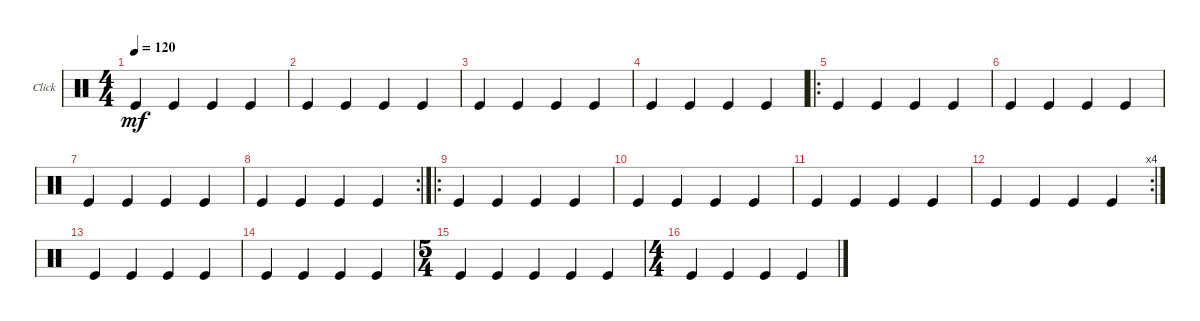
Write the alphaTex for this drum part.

\bracketExtendMode groupsimilarinstruments
\firstSystemTrackNameOrientation horizontal
\otherSystemsTrackNameOrientation horizontal
\track ("Click" "Click") {instrument percussion}
\staff {score}
\articulation defaults
\ts (4 4)
\tempo 120
\clef neutral
\ks c "Kick (hit)".4{dy mf} "Kick (hit)".4 "Kick (hit)".4 "Kick (hit)".4
|
"Kick (hit)".4 "Kick (hit)".4 "Kick (hit)".4 "Kick (hit)".4 |
"Kick (hit)".4 "Kick (hit)".4 "Kick (hit)".4 "Kick (hit)".4 |
"Kick (hit)".4 "Kick (hit)".4 "Kick (hit)".4 "Kick (hit)".4 |
\ro "Kick (hit)".4 "Kick (hit)".4 "Kick (hit)".4 "Kick (hit)".4
|
"Kick (hit)".4 "Kick (hit)".4 "Kick (hit)".4 "Kick (hit)".4 |
"Kick (hit)".4 "Kick (hit)".4 "Kick (hit)".4 "Kick (hit)".4 |
\rc 2 "Kick (hit)".4 "Kick (hit)".4 "Kick (hit)".4 "Kick (hit)".4
|
\ro "Kick (hit)".4 "Kick (hit)".4 "Kick (hit)".4 "Kick (hit)".4
|
"Kick (hit)".4 "Kick (hit)".4 "Kick (hit)".4 "Kick (hit)".4 |
"Kick (hit)".4 "Kick (hit)".4 "Kick (hit)".4 "Kick (hit)".4 |
\rc 4 "Kick (hit)".4 "Kick (hit)".4 "Kick (hit)".4 "Kick (hit)".4
|
"Kick (hit)".4 "Kick (hit)".4 "Kick (hit)".4 "Kick (hit)".4 |
"Kick (hit)".4 "Kick (hit)".4 "Kick (hit)".4 "Kick (hit)".4 |
\ts (5 4)
"Kick (hit)".4 "Kick (hit)".4 "Kick (hit)".4 "Kick (hit)".4 "Kick (hit)".4 |
\ts (4 4)
"Kick (hit)".4 "Kick (hit)".4 "Kick (hit)".4 "Kick (hit)".4
